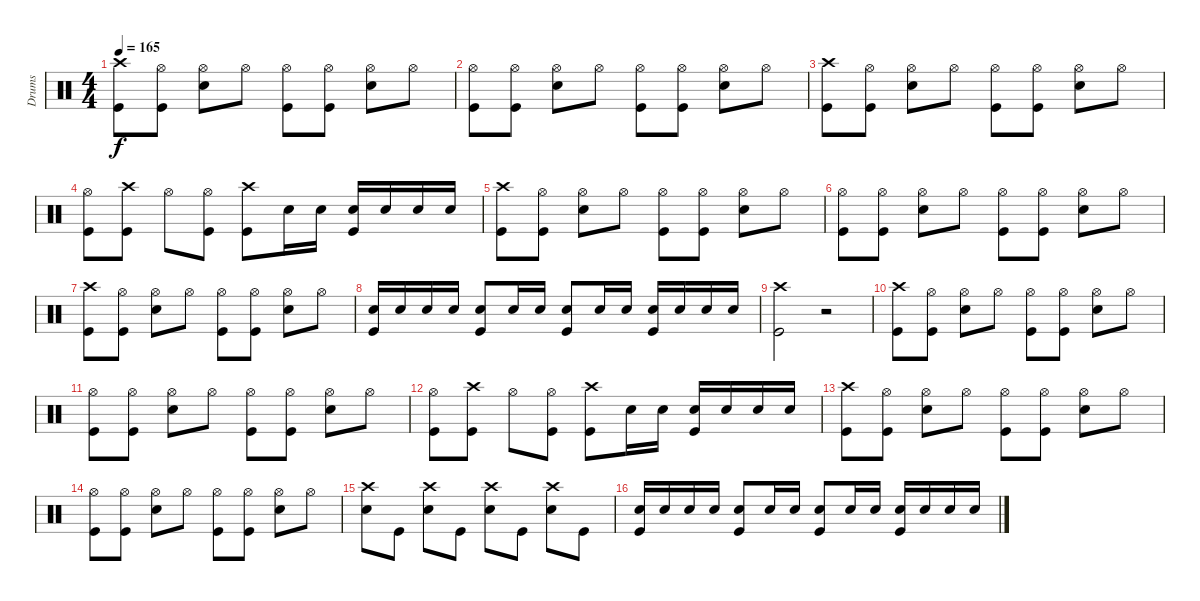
\track ("Drums" "Drums") {instrument percussion}
\staff {score}
\articulation defaults
\ts (4 4)
\tempo 165
\clef neutral
\ks c
("Crash high (hit)" "Kick (hit)").8{dy f} ("Hi-Hat (open)" "Kick (hit)").8 ("Hi-Hat (open)" "Snare (hit) 2").8 "Hi-Hat (open)".8 ("Hi-Hat (open)" "Kick (hit)").8 ("Hi-Hat (open)" "Kick (hit)").8 ("Hi-Hat (open)" "Snare (hit) 2").8 "Hi-Hat (open)".8 |
("Hi-Hat (open)" "Kick (hit)").8 ("Hi-Hat (open)" "Kick (hit)").8 ("Hi-Hat (open)" "Snare (hit) 2").8 "Hi-Hat (open)".8 ("Hi-Hat (open)" "Kick (hit)").8 ("Hi-Hat (open)" "Kick (hit)").8 ("Hi-Hat (open)" "Snare (hit) 2").8 "Hi-Hat (open)".8 |
("Crash high (hit)" "Kick (hit)").8 ("Hi-Hat (open)" "Kick (hit)").8 ("Hi-Hat (open)" "Snare (hit) 2").8 "Hi-Hat (open)".8 ("Hi-Hat (open)" "Kick (hit)").8 ("Hi-Hat (open)" "Kick (hit)").8 ("Hi-Hat (open)" "Snare (hit) 2").8 "Hi-Hat (open)".8 |
("Hi-Hat (open)" "Kick (hit)").8 ("Crash high (hit)" "Kick (hit)").8 "Hi-Hat (open)".8 ("Hi-Hat (open)" "Kick (hit)").8 ("Crash high (hit)" "Kick (hit)").8 "Snare (hit) 2".16 "Snare (hit) 2".16 ("Snare (hit) 2" "Kick (hit)").16 "Snare (hit) 2".16 "Snare (hit) 2".16 "Snare (hit) 2".16 |
("Crash high (hit)" "Kick (hit)").8 ("Hi-Hat (open)" "Kick (hit)").8 ("Hi-Hat (open)" "Snare (hit) 2").8 "Hi-Hat (open)".8 ("Hi-Hat (open)" "Kick (hit)").8 ("Hi-Hat (open)" "Kick (hit)").8 ("Hi-Hat (open)" "Snare (hit) 2").8 "Hi-Hat (open)".8 |
("Hi-Hat (open)" "Kick (hit)").8 ("Hi-Hat (open)" "Kick (hit)").8 ("Hi-Hat (open)" "Snare (hit) 2").8 "Hi-Hat (open)".8 ("Hi-Hat (open)" "Kick (hit)").8 ("Hi-Hat (open)" "Kick (hit)").8 ("Hi-Hat (open)" "Snare (hit) 2").8 "Hi-Hat (open)".8 |
("Crash high (hit)" "Kick (hit)").8 ("Hi-Hat (open)" "Kick (hit)").8 ("Hi-Hat (open)" "Snare (hit) 2").8 "Hi-Hat (open)".8 ("Hi-Hat (open)" "Kick (hit)").8 ("Hi-Hat (open)" "Kick (hit)").8 ("Hi-Hat (open)" "Snare (hit) 2").8 "Hi-Hat (open)".8 |
("Snare (hit) 2" "Kick (hit)").16 "Snare (hit) 2".16 "Snare (hit) 2".16 "Snare (hit) 2".16 ("Snare (hit) 2" "Kick (hit)").8 "Snare (hit) 2".16 "Snare (hit) 2".16 ("Snare (hit) 2" "Kick (hit)").8 "Snare (hit) 2".16 "Snare (hit) 2".16 ("Snare (hit) 2" "Kick (hit)").16 "Snare (hit) 2".16 "Snare (hit) 2".16 "Snare (hit) 2".16 |
("Crash high (hit)" "Kick (hit)").2 r.2 |
("Crash high (hit)" "Kick (hit)").8 ("Hi-Hat (open)" "Kick (hit)").8 ("Hi-Hat (open)" "Snare (hit) 2").8 "Hi-Hat (open)".8 ("Hi-Hat (open)" "Kick (hit)").8 ("Hi-Hat (open)" "Kick (hit)").8 ("Hi-Hat (open)" "Snare (hit) 2").8 "Hi-Hat (open)".8 |
("Hi-Hat (open)" "Kick (hit)").8 ("Hi-Hat (open)" "Kick (hit)").8 ("Hi-Hat (open)" "Snare (hit) 2").8 "Hi-Hat (open)".8 ("Hi-Hat (open)" "Kick (hit)").8 ("Hi-Hat (open)" "Kick (hit)").8 ("Hi-Hat (open)" "Snare (hit) 2").8 "Hi-Hat (open)".8 |
("Hi-Hat (open)" "Kick (hit)").8 ("Crash high (hit)" "Kick (hit)").8 "Hi-Hat (open)".8 ("Hi-Hat (open)" "Kick (hit)").8 ("Crash high (hit)" "Kick (hit)").8 "Snare (hit) 2".16 "Snare (hit) 2".16 ("Snare (hit) 2" "Kick (hit)").16 "Snare (hit) 2".16 "Snare (hit) 2".16 "Snare (hit) 2".16 |
("Crash high (hit)" "Kick (hit)").8 ("Hi-Hat (open)" "Kick (hit)").8 ("Hi-Hat (open)" "Snare (hit) 2").8 "Hi-Hat (open)".8 ("Hi-Hat (open)" "Kick (hit)").8 ("Hi-Hat (open)" "Kick (hit)").8 ("Hi-Hat (open)" "Snare (hit) 2").8 "Hi-Hat (open)".8 |
("Hi-Hat (open)" "Kick (hit)").8 ("Hi-Hat (open)" "Kick (hit)").8 ("Hi-Hat (open)" "Snare (hit) 2").8 "Hi-Hat (open)".8 ("Hi-Hat (open)" "Kick (hit)").8 ("Hi-Hat (open)" "Kick (hit)").8 ("Hi-Hat (open)" "Snare (hit) 2").8 "Hi-Hat (open)".8 |
("Crash high (hit)" "Snare (hit) 2").8 "Kick (hit)".8 ("Crash high (hit)" "Snare (hit) 2").8 "Kick (hit)".8 ("Crash high (hit)" "Snare (hit) 2").8 "Kick (hit)".8 ("Crash high (hit)" "Snare (hit) 2").8 "Kick (hit)".8 |
("Snare (hit) 2" "Kick (hit)").16 "Snare (hit) 2".16 "Snare (hit) 2".16 "Snare (hit) 2".16 ("Snare (hit) 2" "Kick (hit)").8 "Snare (hit) 2".16 "Snare (hit) 2".16 ("Snare (hit) 2" "Kick (hit)").8 "Snare (hit) 2".16 "Snare (hit) 2".16 ("Snare (hit) 2" "Kick (hit)").16 "Snare (hit) 2".16 "Snare (hit) 2".16 "Snare (hit) 2".16
